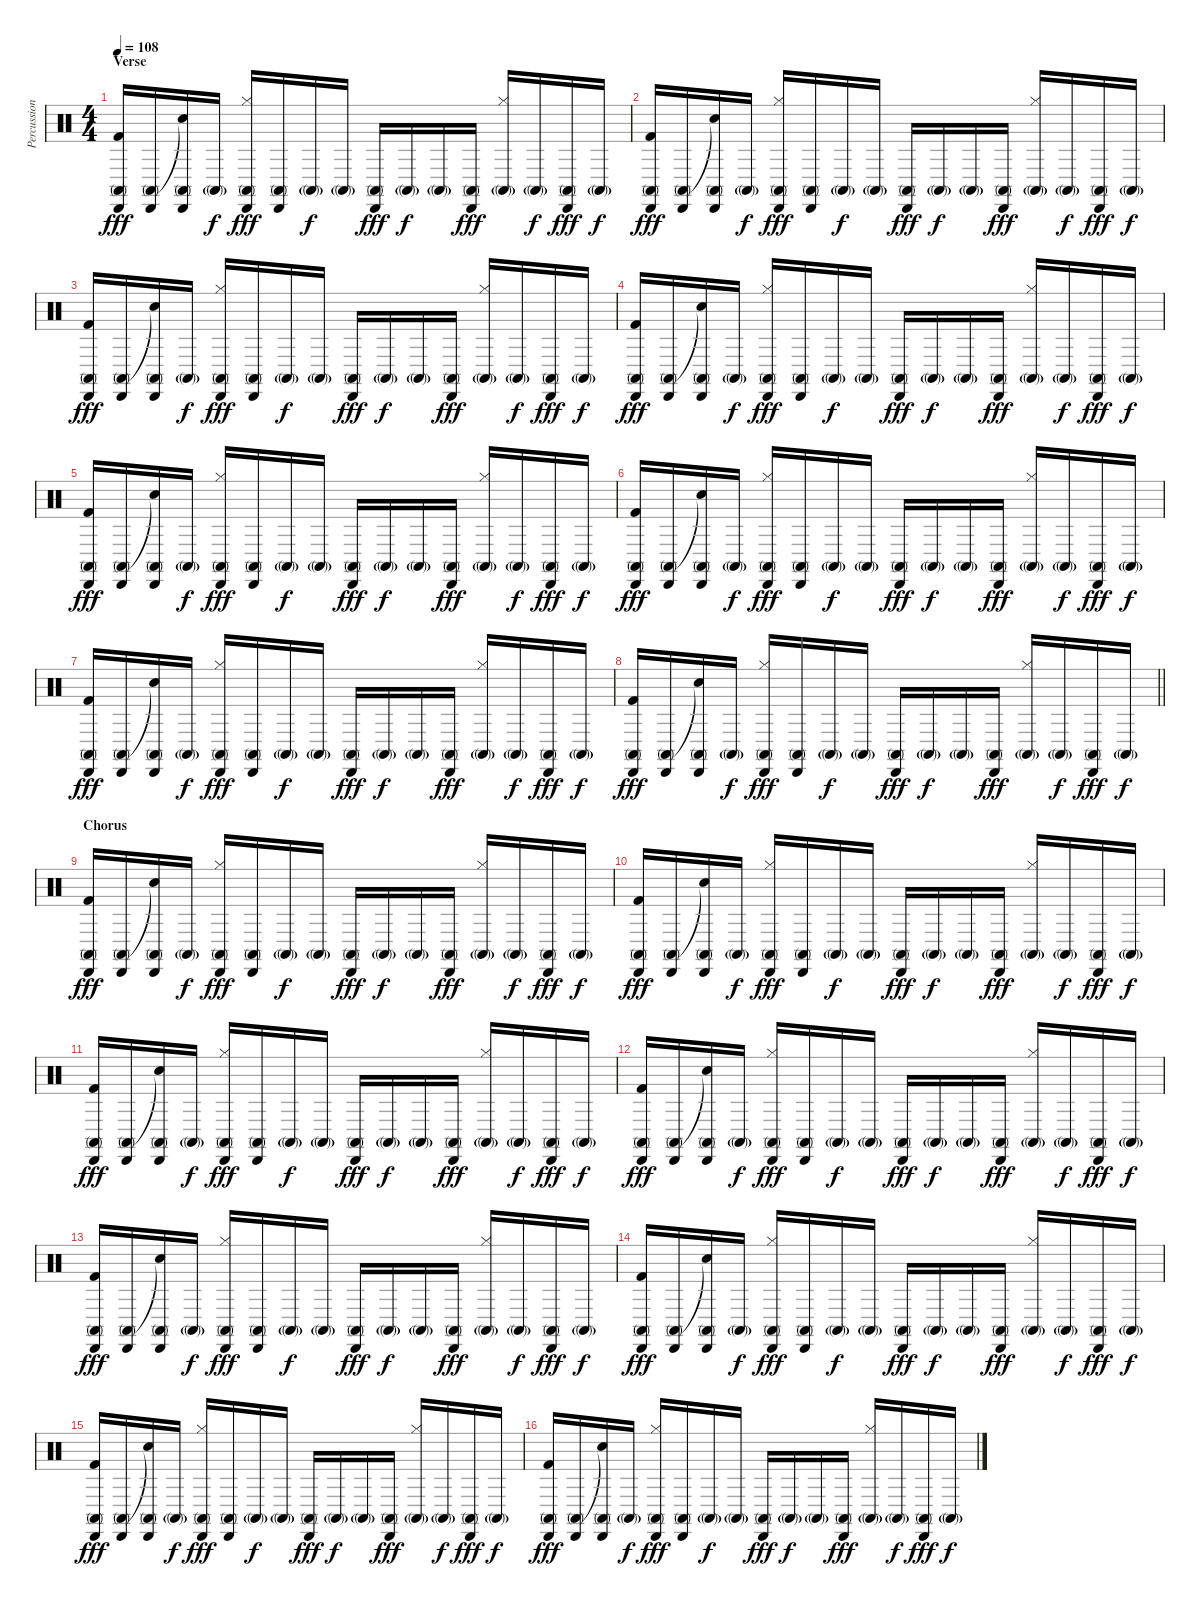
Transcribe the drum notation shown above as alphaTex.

\track ("Percussion" "Percussion") {instrument percussion}
\staff {score}
\articulation defaults
\ts (4 4)
\section ("" "Verse")
\tempo 108
\clef neutral
\ks c
("Conga high (mute)" "Cabasa (hit)" "Kick (hit) 2").16{dy fff} ("Conga high (mute)" "Cabasa (hit)").16 ("Snare (hit)"{t} "Conga high (mute)" "Cabasa (hit)").16 "Conga high (mute)"{g}.16{dy f} ("Hi-Hat (closed)" "Conga high (mute)" "Cabasa (hit)").16{dy fff} ("Conga high (mute)" "Cabasa (hit)").16 "Conga high (mute)"{g}.16{dy f} "Conga high (mute)"{g}.16 ("Conga high (mute)" "Cabasa (hit)").16{dy fff} "Conga high (mute)"{g}.16{dy f} "Conga high (mute)"{g}.16 ("Conga high (mute)" "Cabasa (hit)").16{dy fff} ("Hi-Hat (closed)" "Conga high (mute)"{g}).16 "Conga high (mute)"{g}.16{dy f} ("Conga high (mute)" "Cabasa (hit)").16{dy fff} "Conga high (mute)"{g}.16{dy f} |
("Conga high (mute)" "Cabasa (hit)" "Kick (hit) 2").16{dy fff} ("Conga high (mute)" "Cabasa (hit)").16 ("Snare (hit)"{t} "Conga high (mute)" "Cabasa (hit)").16 "Conga high (mute)"{g}.16{dy f} ("Hi-Hat (closed)" "Conga high (mute)" "Cabasa (hit)").16{dy fff} ("Conga high (mute)" "Cabasa (hit)").16 "Conga high (mute)"{g}.16{dy f} "Conga high (mute)"{g}.16 ("Conga high (mute)" "Cabasa (hit)").16{dy fff} "Conga high (mute)"{g}.16{dy f} "Conga high (mute)"{g}.16 ("Conga high (mute)" "Cabasa (hit)").16{dy fff} ("Hi-Hat (closed)" "Conga high (mute)"{g}).16 "Conga high (mute)"{g}.16{dy f} ("Conga high (mute)" "Cabasa (hit)").16{dy fff} "Conga high (mute)"{g}.16{dy f} |
("Conga high (mute)" "Cabasa (hit)" "Kick (hit) 2").16{dy fff} ("Conga high (mute)" "Cabasa (hit)").16 ("Snare (hit)"{t} "Conga high (mute)" "Cabasa (hit)").16 "Conga high (mute)"{g}.16{dy f} ("Hi-Hat (closed)" "Conga high (mute)" "Cabasa (hit)").16{dy fff} ("Conga high (mute)" "Cabasa (hit)").16 "Conga high (mute)"{g}.16{dy f} "Conga high (mute)"{g}.16 ("Conga high (mute)" "Cabasa (hit)").16{dy fff} "Conga high (mute)"{g}.16{dy f} "Conga high (mute)"{g}.16 ("Conga high (mute)" "Cabasa (hit)").16{dy fff} ("Hi-Hat (closed)" "Conga high (mute)"{g}).16 "Conga high (mute)"{g}.16{dy f} ("Conga high (mute)" "Cabasa (hit)").16{dy fff} "Conga high (mute)"{g}.16{dy f} |
("Conga high (mute)" "Cabasa (hit)" "Kick (hit) 2").16{dy fff} ("Conga high (mute)" "Cabasa (hit)").16 ("Snare (hit)"{t} "Conga high (mute)" "Cabasa (hit)").16 "Conga high (mute)"{g}.16{dy f} ("Hi-Hat (closed)" "Conga high (mute)" "Cabasa (hit)").16{dy fff} ("Conga high (mute)" "Cabasa (hit)").16 "Conga high (mute)"{g}.16{dy f} "Conga high (mute)"{g}.16 ("Conga high (mute)" "Cabasa (hit)").16{dy fff} "Conga high (mute)"{g}.16{dy f} "Conga high (mute)"{g}.16 ("Conga high (mute)" "Cabasa (hit)").16{dy fff} ("Hi-Hat (closed)" "Conga high (mute)"{g}).16 "Conga high (mute)"{g}.16{dy f} ("Conga high (mute)" "Cabasa (hit)").16{dy fff} "Conga high (mute)"{g}.16{dy f} |
("Conga high (mute)" "Cabasa (hit)" "Kick (hit) 2").16{dy fff} ("Conga high (mute)" "Cabasa (hit)").16 ("Snare (hit)"{t} "Conga high (mute)" "Cabasa (hit)").16 "Conga high (mute)"{g}.16{dy f} ("Hi-Hat (closed)" "Conga high (mute)" "Cabasa (hit)").16{dy fff} ("Conga high (mute)" "Cabasa (hit)").16 "Conga high (mute)"{g}.16{dy f} "Conga high (mute)"{g}.16 ("Conga high (mute)" "Cabasa (hit)").16{dy fff} "Conga high (mute)"{g}.16{dy f} "Conga high (mute)"{g}.16 ("Conga high (mute)" "Cabasa (hit)").16{dy fff} ("Hi-Hat (closed)" "Conga high (mute)"{g}).16 "Conga high (mute)"{g}.16{dy f} ("Conga high (mute)" "Cabasa (hit)").16{dy fff} "Conga high (mute)"{g}.16{dy f} |
("Conga high (mute)" "Cabasa (hit)" "Kick (hit) 2").16{dy fff} ("Conga high (mute)" "Cabasa (hit)").16 ("Snare (hit)"{t} "Conga high (mute)" "Cabasa (hit)").16 "Conga high (mute)"{g}.16{dy f} ("Hi-Hat (closed)" "Conga high (mute)" "Cabasa (hit)").16{dy fff} ("Conga high (mute)" "Cabasa (hit)").16 "Conga high (mute)"{g}.16{dy f} "Conga high (mute)"{g}.16 ("Conga high (mute)" "Cabasa (hit)").16{dy fff} "Conga high (mute)"{g}.16{dy f} "Conga high (mute)"{g}.16 ("Conga high (mute)" "Cabasa (hit)").16{dy fff} ("Hi-Hat (closed)" "Conga high (mute)"{g}).16 "Conga high (mute)"{g}.16{dy f} ("Conga high (mute)" "Cabasa (hit)").16{dy fff} "Conga high (mute)"{g}.16{dy f} |
("Conga high (mute)" "Cabasa (hit)" "Kick (hit) 2").16{dy fff} ("Conga high (mute)" "Cabasa (hit)").16 ("Snare (hit)"{t} "Conga high (mute)" "Cabasa (hit)").16 "Conga high (mute)"{g}.16{dy f} ("Hi-Hat (closed)" "Conga high (mute)" "Cabasa (hit)").16{dy fff} ("Conga high (mute)" "Cabasa (hit)").16 "Conga high (mute)"{g}.16{dy f} "Conga high (mute)"{g}.16 ("Conga high (mute)" "Cabasa (hit)").16{dy fff} "Conga high (mute)"{g}.16{dy f} "Conga high (mute)"{g}.16 ("Conga high (mute)" "Cabasa (hit)").16{dy fff} ("Hi-Hat (closed)" "Conga high (mute)"{g}).16 "Conga high (mute)"{g}.16{dy f} ("Conga high (mute)" "Cabasa (hit)").16{dy fff} "Conga high (mute)"{g}.16{dy f} |
\barLineRight lightlight
("Conga high (mute)" "Cabasa (hit)" "Kick (hit) 2").16{dy fff} ("Conga high (mute)" "Cabasa (hit)").16 ("Snare (hit)"{t} "Conga high (mute)" "Cabasa (hit)").16 "Conga high (mute)"{g}.16{dy f} ("Hi-Hat (closed)" "Conga high (mute)" "Cabasa (hit)").16{dy fff} ("Conga high (mute)" "Cabasa (hit)").16 "Conga high (mute)"{g}.16{dy f} "Conga high (mute)"{g}.16 ("Conga high (mute)" "Cabasa (hit)").16{dy fff} "Conga high (mute)"{g}.16{dy f} "Conga high (mute)"{g}.16 ("Conga high (mute)" "Cabasa (hit)").16{dy fff} ("Hi-Hat (closed)" "Conga high (mute)"{g}).16 "Conga high (mute)"{g}.16{dy f} ("Conga high (mute)" "Cabasa (hit)").16{dy fff} "Conga high (mute)"{g}.16{dy f} |
\section ("" "Chorus")
("Conga high (mute)" "Cabasa (hit)" "Kick (hit) 2").16{dy fff} ("Conga high (mute)" "Cabasa (hit)").16 ("Snare (hit)"{t} "Conga high (mute)" "Cabasa (hit)").16 "Conga high (mute)"{g}.16{dy f} ("Hi-Hat (closed)" "Conga high (mute)" "Cabasa (hit)").16{dy fff} ("Conga high (mute)" "Cabasa (hit)").16 "Conga high (mute)"{g}.16{dy f} "Conga high (mute)"{g}.16 ("Conga high (mute)" "Cabasa (hit)").16{dy fff} "Conga high (mute)"{g}.16{dy f} "Conga high (mute)"{g}.16 ("Conga high (mute)" "Cabasa (hit)").16{dy fff} ("Hi-Hat (closed)" "Conga high (mute)"{g}).16 "Conga high (mute)"{g}.16{dy f} ("Conga high (mute)" "Cabasa (hit)").16{dy fff} "Conga high (mute)"{g}.16{dy f} |
("Conga high (mute)" "Cabasa (hit)" "Kick (hit) 2").16{dy fff} ("Conga high (mute)" "Cabasa (hit)").16 ("Snare (hit)"{t} "Conga high (mute)" "Cabasa (hit)").16 "Conga high (mute)"{g}.16{dy f} ("Hi-Hat (closed)" "Conga high (mute)" "Cabasa (hit)").16{dy fff} ("Conga high (mute)" "Cabasa (hit)").16 "Conga high (mute)"{g}.16{dy f} "Conga high (mute)"{g}.16 ("Conga high (mute)" "Cabasa (hit)").16{dy fff} "Conga high (mute)"{g}.16{dy f} "Conga high (mute)"{g}.16 ("Conga high (mute)" "Cabasa (hit)").16{dy fff} ("Hi-Hat (closed)" "Conga high (mute)"{g}).16 "Conga high (mute)"{g}.16{dy f} ("Conga high (mute)" "Cabasa (hit)").16{dy fff} "Conga high (mute)"{g}.16{dy f} |
("Conga high (mute)" "Cabasa (hit)" "Kick (hit) 2").16{dy fff} ("Conga high (mute)" "Cabasa (hit)").16 ("Snare (hit)"{t} "Conga high (mute)" "Cabasa (hit)").16 "Conga high (mute)"{g}.16{dy f} ("Hi-Hat (closed)" "Conga high (mute)" "Cabasa (hit)").16{dy fff} ("Conga high (mute)" "Cabasa (hit)").16 "Conga high (mute)"{g}.16{dy f} "Conga high (mute)"{g}.16 ("Conga high (mute)" "Cabasa (hit)").16{dy fff} "Conga high (mute)"{g}.16{dy f} "Conga high (mute)"{g}.16 ("Conga high (mute)" "Cabasa (hit)").16{dy fff} ("Hi-Hat (closed)" "Conga high (mute)"{g}).16 "Conga high (mute)"{g}.16{dy f} ("Conga high (mute)" "Cabasa (hit)").16{dy fff} "Conga high (mute)"{g}.16{dy f} |
("Conga high (mute)" "Cabasa (hit)" "Kick (hit) 2").16{dy fff} ("Conga high (mute)" "Cabasa (hit)").16 ("Snare (hit)"{t} "Conga high (mute)" "Cabasa (hit)").16 "Conga high (mute)"{g}.16{dy f} ("Hi-Hat (closed)" "Conga high (mute)" "Cabasa (hit)").16{dy fff} ("Conga high (mute)" "Cabasa (hit)").16 "Conga high (mute)"{g}.16{dy f} "Conga high (mute)"{g}.16 ("Conga high (mute)" "Cabasa (hit)").16{dy fff} "Conga high (mute)"{g}.16{dy f} "Conga high (mute)"{g}.16 ("Conga high (mute)" "Cabasa (hit)").16{dy fff} ("Hi-Hat (closed)" "Conga high (mute)"{g}).16 "Conga high (mute)"{g}.16{dy f} ("Conga high (mute)" "Cabasa (hit)").16{dy fff} "Conga high (mute)"{g}.16{dy f} |
("Conga high (mute)" "Cabasa (hit)" "Kick (hit) 2").16{dy fff} ("Conga high (mute)" "Cabasa (hit)").16 ("Snare (hit)"{t} "Conga high (mute)" "Cabasa (hit)").16 "Conga high (mute)"{g}.16{dy f} ("Hi-Hat (closed)" "Conga high (mute)" "Cabasa (hit)").16{dy fff} ("Conga high (mute)" "Cabasa (hit)").16 "Conga high (mute)"{g}.16{dy f} "Conga high (mute)"{g}.16 ("Conga high (mute)" "Cabasa (hit)").16{dy fff} "Conga high (mute)"{g}.16{dy f} "Conga high (mute)"{g}.16 ("Conga high (mute)" "Cabasa (hit)").16{dy fff} ("Hi-Hat (closed)" "Conga high (mute)"{g}).16 "Conga high (mute)"{g}.16{dy f} ("Conga high (mute)" "Cabasa (hit)").16{dy fff} "Conga high (mute)"{g}.16{dy f} |
("Conga high (mute)" "Cabasa (hit)" "Kick (hit) 2").16{dy fff} ("Conga high (mute)" "Cabasa (hit)").16 ("Snare (hit)"{t} "Conga high (mute)" "Cabasa (hit)").16 "Conga high (mute)"{g}.16{dy f} ("Hi-Hat (closed)" "Conga high (mute)" "Cabasa (hit)").16{dy fff} ("Conga high (mute)" "Cabasa (hit)").16 "Conga high (mute)"{g}.16{dy f} "Conga high (mute)"{g}.16 ("Conga high (mute)" "Cabasa (hit)").16{dy fff} "Conga high (mute)"{g}.16{dy f} "Conga high (mute)"{g}.16 ("Conga high (mute)" "Cabasa (hit)").16{dy fff} ("Hi-Hat (closed)" "Conga high (mute)"{g}).16 "Conga high (mute)"{g}.16{dy f} ("Conga high (mute)" "Cabasa (hit)").16{dy fff} "Conga high (mute)"{g}.16{dy f} |
("Conga high (mute)" "Cabasa (hit)" "Kick (hit) 2").16{dy fff} ("Conga high (mute)" "Cabasa (hit)").16 ("Snare (hit)"{t} "Conga high (mute)" "Cabasa (hit)").16 "Conga high (mute)"{g}.16{dy f} ("Hi-Hat (closed)" "Conga high (mute)" "Cabasa (hit)").16{dy fff} ("Conga high (mute)" "Cabasa (hit)").16 "Conga high (mute)"{g}.16{dy f} "Conga high (mute)"{g}.16 ("Conga high (mute)" "Cabasa (hit)").16{dy fff} "Conga high (mute)"{g}.16{dy f} "Conga high (mute)"{g}.16 ("Conga high (mute)" "Cabasa (hit)").16{dy fff} ("Hi-Hat (closed)" "Conga high (mute)"{g}).16 "Conga high (mute)"{g}.16{dy f} ("Conga high (mute)" "Cabasa (hit)").16{dy fff} "Conga high (mute)"{g}.16{dy f} |
("Conga high (mute)" "Cabasa (hit)" "Kick (hit) 2").16{dy fff} ("Conga high (mute)" "Cabasa (hit)").16 ("Snare (hit)"{t} "Conga high (mute)" "Cabasa (hit)").16 "Conga high (mute)"{g}.16{dy f} ("Hi-Hat (closed)" "Conga high (mute)" "Cabasa (hit)").16{dy fff} ("Conga high (mute)" "Cabasa (hit)").16 "Conga high (mute)"{g}.16{dy f} "Conga high (mute)"{g}.16 ("Conga high (mute)" "Cabasa (hit)").16{dy fff} "Conga high (mute)"{g}.16{dy f} "Conga high (mute)"{g}.16 ("Conga high (mute)" "Cabasa (hit)").16{dy fff} ("Hi-Hat (closed)" "Conga high (mute)"{g}).16 "Conga high (mute)"{g}.16{dy f} ("Conga high (mute)" "Cabasa (hit)").16{dy fff} "Conga high (mute)"{g}.16{dy f}
